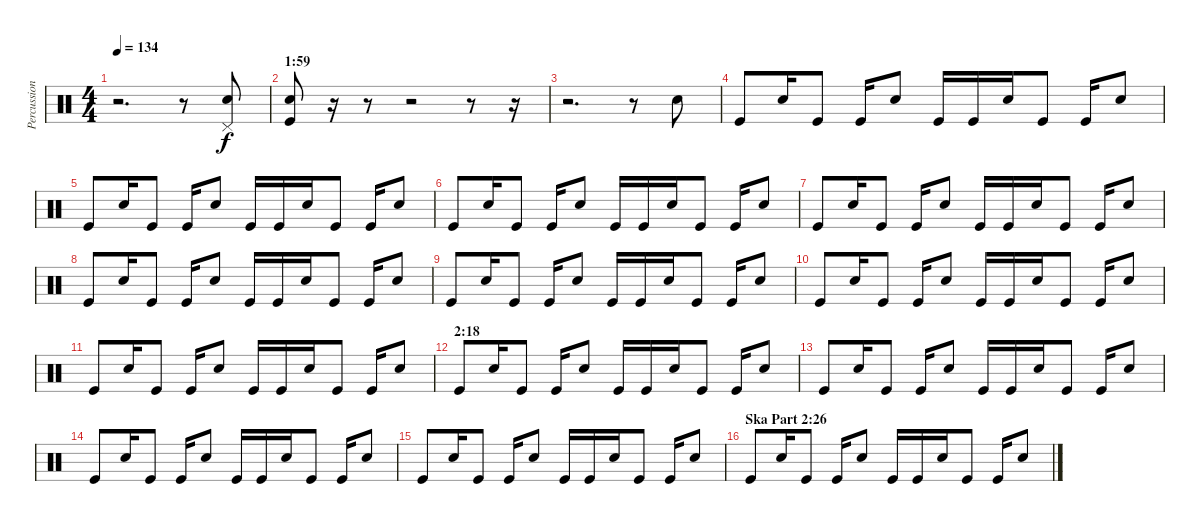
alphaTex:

\track ("Percussions" "Percussion") {instrument percussion}
\staff {score}
\articulation defaults
\ts (4 4)
\tempo 134
\clef neutral
\ks c
r.2{d dy f} r.8 ("Snare (hit)" "Pedal Hi-Hat (hit)").8 |
\section ("" "1:59")
("Kick (hit)" "Electric Snare (hit)").8 r.16 r.8 r.2 r.8 r.16 |
r.2{d} r.8 "Electric Snare (hit)".8 |
"Kick (hit)".8 "Electric Snare (hit)".16 "Kick (hit)".8 "Kick (hit)".16 "Electric Snare (hit)".8 "Kick (hit)".16 "Kick (hit)".16 "Electric Snare (hit)".16 "Kick (hit)".8 "Kick (hit)".16 "Electric Snare (hit)".8 |
"Kick (hit)".8 "Electric Snare (hit)".16 "Kick (hit)".8 "Kick (hit)".16 "Electric Snare (hit)".8 "Kick (hit)".16 "Kick (hit)".16 "Electric Snare (hit)".16 "Kick (hit)".8 "Kick (hit)".16 "Electric Snare (hit)".8 |
"Kick (hit)".8 "Electric Snare (hit)".16 "Kick (hit)".8 "Kick (hit)".16 "Electric Snare (hit)".8 "Kick (hit)".16 "Kick (hit)".16 "Electric Snare (hit)".16 "Kick (hit)".8 "Kick (hit)".16 "Electric Snare (hit)".8 |
"Kick (hit)".8 "Electric Snare (hit)".16 "Kick (hit)".8 "Kick (hit)".16 "Electric Snare (hit)".8 "Kick (hit)".16 "Kick (hit)".16 "Electric Snare (hit)".16 "Kick (hit)".8 "Kick (hit)".16 "Electric Snare (hit)".8 |
"Kick (hit)".8 "Electric Snare (hit)".16 "Kick (hit)".8 "Kick (hit)".16 "Electric Snare (hit)".8 "Kick (hit)".16 "Kick (hit)".16 "Electric Snare (hit)".16 "Kick (hit)".8 "Kick (hit)".16 "Electric Snare (hit)".8 |
"Kick (hit)".8 "Electric Snare (hit)".16 "Kick (hit)".8 "Kick (hit)".16 "Electric Snare (hit)".8 "Kick (hit)".16 "Kick (hit)".16 "Electric Snare (hit)".16 "Kick (hit)".8 "Kick (hit)".16 "Electric Snare (hit)".8 |
"Kick (hit)".8 "Electric Snare (hit)".16 "Kick (hit)".8 "Kick (hit)".16 "Electric Snare (hit)".8 "Kick (hit)".16 "Kick (hit)".16 "Electric Snare (hit)".16 "Kick (hit)".8 "Kick (hit)".16 "Electric Snare (hit)".8 |
"Kick (hit)".8 "Electric Snare (hit)".16 "Kick (hit)".8 "Kick (hit)".16 "Electric Snare (hit)".8 "Kick (hit)".16 "Kick (hit)".16 "Electric Snare (hit)".16 "Kick (hit)".8 "Kick (hit)".16 "Electric Snare (hit)".8 |
\section ("" "2:18")
"Kick (hit)".8 "Electric Snare (hit)".16 "Kick (hit)".8 "Kick (hit)".16 "Electric Snare (hit)".8 "Kick (hit)".16 "Kick (hit)".16 "Electric Snare (hit)".16 "Kick (hit)".8 "Kick (hit)".16 "Electric Snare (hit)".8 |
"Kick (hit)".8 "Electric Snare (hit)".16 "Kick (hit)".8 "Kick (hit)".16 "Electric Snare (hit)".8 "Kick (hit)".16 "Kick (hit)".16 "Electric Snare (hit)".16 "Kick (hit)".8 "Kick (hit)".16 "Electric Snare (hit)".8 |
"Kick (hit)".8 "Electric Snare (hit)".16 "Kick (hit)".8 "Kick (hit)".16 "Electric Snare (hit)".8 "Kick (hit)".16 "Kick (hit)".16 "Electric Snare (hit)".16 "Kick (hit)".8 "Kick (hit)".16 "Electric Snare (hit)".8 |
"Kick (hit)".8 "Electric Snare (hit)".16 "Kick (hit)".8 "Kick (hit)".16 "Electric Snare (hit)".8 "Kick (hit)".16 "Kick (hit)".16 "Electric Snare (hit)".16 "Kick (hit)".8 "Kick (hit)".16 "Electric Snare (hit)".8 |
\section ("" "Ska Part 2:26")
"Kick (hit)".8 "Electric Snare (hit)".16 "Kick (hit)".8 "Kick (hit)".16 "Electric Snare (hit)".8 "Kick (hit)".16 "Kick (hit)".16 "Electric Snare (hit)".16 "Kick (hit)".8 "Kick (hit)".16 "Electric Snare (hit)".8
